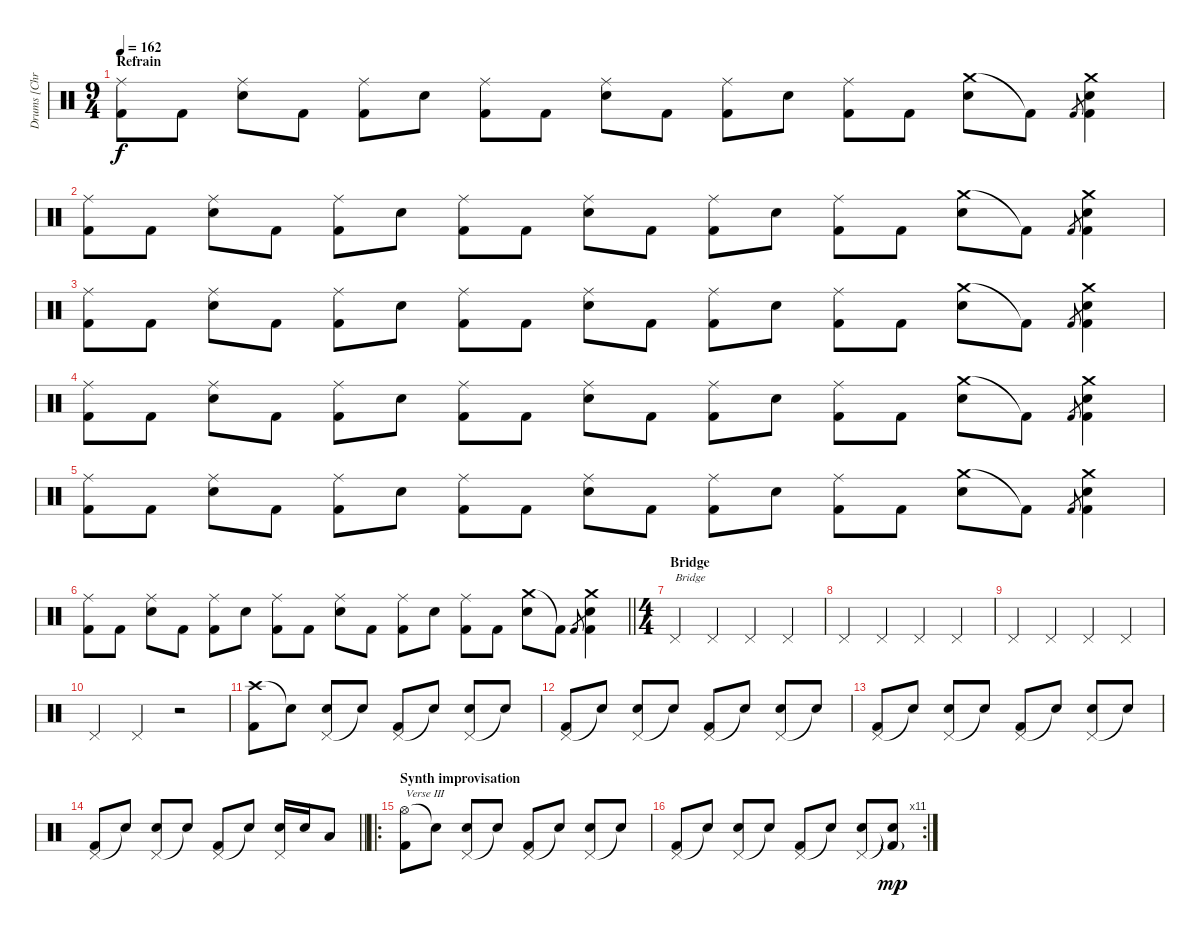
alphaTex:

\track ("Drums [Chris Maitland]" "Drums [Chr") {instrument percussion}
\staff {score}
\articulation defaults
\ts (9 4)
\section ("" "Refrain")
\tempo 162
\clef neutral
\ks c
("Ride (middle)" "Kick (hit) 2").8{dy f} "Kick (hit) 2".8 ("Ride (middle)" "Electric Snare (hit)").8 "Kick (hit) 2".8 ("Ride (middle)" "Kick (hit) 2").8 "Electric Snare (hit)".8 ("Ride (middle)" "Kick (hit) 2").8 "Kick (hit) 2".8 ("Ride (middle)" "Electric Snare (hit)").8 "Kick (hit) 2".8 ("Ride (middle)" "Kick (hit) 2").8 "Electric Snare (hit)".8 ("Ride (middle)" "Kick (hit) 2").8 "Kick (hit) 2".8 ("Crash medium (hit)" "Electric Snare (hit)").8 "Kick (hit) 2"{t}.8 "Kick (hit) 2".8{gr} ("Crash medium (hit)" "Electric Snare (hit)" "Kick (hit) 2").4 |
("Ride (middle)" "Kick (hit) 2").8 "Kick (hit) 2".8 ("Ride (middle)" "Electric Snare (hit)").8 "Kick (hit) 2".8 ("Ride (middle)" "Kick (hit) 2").8 "Electric Snare (hit)".8 ("Ride (middle)" "Kick (hit) 2").8 "Kick (hit) 2".8 ("Ride (middle)" "Electric Snare (hit)").8 "Kick (hit) 2".8 ("Ride (middle)" "Kick (hit) 2").8 "Electric Snare (hit)".8 ("Ride (middle)" "Kick (hit) 2").8 "Kick (hit) 2".8 ("Crash medium (hit)" "Electric Snare (hit)").8 "Kick (hit) 2"{t}.8 "Kick (hit) 2".8{gr} ("Crash medium (hit)" "Electric Snare (hit)" "Kick (hit) 2").4 |
("Ride (middle)" "Kick (hit) 2").8 "Kick (hit) 2".8 ("Ride (middle)" "Electric Snare (hit)").8 "Kick (hit) 2".8 ("Ride (middle)" "Kick (hit) 2").8 "Electric Snare (hit)".8 ("Ride (middle)" "Kick (hit) 2").8 "Kick (hit) 2".8 ("Ride (middle)" "Electric Snare (hit)").8 "Kick (hit) 2".8 ("Ride (middle)" "Kick (hit) 2").8 "Electric Snare (hit)".8 ("Ride (middle)" "Kick (hit) 2").8 "Kick (hit) 2".8 ("Crash medium (hit)" "Electric Snare (hit)").8 "Kick (hit) 2"{t}.8 "Kick (hit) 2".8{gr} ("Crash medium (hit)" "Electric Snare (hit)" "Kick (hit) 2").4 |
("Ride (middle)" "Kick (hit) 2").8 "Kick (hit) 2".8 ("Ride (middle)" "Electric Snare (hit)").8 "Kick (hit) 2".8 ("Ride (middle)" "Kick (hit) 2").8 "Electric Snare (hit)".8 ("Ride (middle)" "Kick (hit) 2").8 "Kick (hit) 2".8 ("Ride (middle)" "Electric Snare (hit)").8 "Kick (hit) 2".8 ("Ride (middle)" "Kick (hit) 2").8 "Electric Snare (hit)".8 ("Ride (middle)" "Kick (hit) 2").8 "Kick (hit) 2".8 ("Crash medium (hit)" "Electric Snare (hit)").8 "Kick (hit) 2"{t}.8 "Kick (hit) 2".8{gr} ("Crash medium (hit)" "Electric Snare (hit)" "Kick (hit) 2").4 |
("Ride (middle)" "Kick (hit) 2").8 "Kick (hit) 2".8 ("Ride (middle)" "Electric Snare (hit)").8 "Kick (hit) 2".8 ("Ride (middle)" "Kick (hit) 2").8 "Electric Snare (hit)".8 ("Ride (middle)" "Kick (hit) 2").8 "Kick (hit) 2".8 ("Ride (middle)" "Electric Snare (hit)").8 "Kick (hit) 2".8 ("Ride (middle)" "Kick (hit) 2").8 "Electric Snare (hit)".8 ("Ride (middle)" "Kick (hit) 2").8 "Kick (hit) 2".8 ("Crash medium (hit)" "Electric Snare (hit)").8 "Kick (hit) 2"{t}.8 "Kick (hit) 2".8{gr} ("Crash medium (hit)" "Electric Snare (hit)" "Kick (hit) 2").4 |
\barLineRight lightlight
("Ride (middle)" "Kick (hit) 2").8 "Kick (hit) 2".8 ("Ride (middle)" "Electric Snare (hit)").8 "Kick (hit) 2".8 ("Ride (middle)" "Kick (hit) 2").8 "Electric Snare (hit)".8 ("Ride (middle)" "Kick (hit) 2").8 "Kick (hit) 2".8 ("Ride (middle)" "Electric Snare (hit)").8 "Kick (hit) 2".8 ("Ride (middle)" "Kick (hit) 2").8 "Electric Snare (hit)".8 ("Ride (middle)" "Kick (hit) 2").8 "Kick (hit) 2".8 ("Crash medium (hit)" "Electric Snare (hit)").8 "Kick (hit) 2"{t}.8 "Kick (hit) 2".8{gr} ("Crash medium (hit)" "Electric Snare (hit)" "Kick (hit) 2").4 |
\ts (4 4)
\section ("" "Bridge")
"Pedal Hi-Hat (hit)".4{txt "Bridge "} "Pedal Hi-Hat (hit)".4 "Pedal Hi-Hat (hit)".4 "Pedal Hi-Hat (hit)".4 |
"Pedal Hi-Hat (hit)".4 "Pedal Hi-Hat (hit)".4 "Pedal Hi-Hat (hit)".4 "Pedal Hi-Hat (hit)".4 |
"Pedal Hi-Hat (hit)".4 "Pedal Hi-Hat (hit)".4 "Pedal Hi-Hat (hit)".4 "Pedal Hi-Hat (hit)".4 |
"Pedal Hi-Hat (hit)".4 "Pedal Hi-Hat (hit)".4 r.2 |
("Crash high (hit)" "Kick (hit) 2").8 "Snare (hit)"{t}.8 ("Pedal Hi-Hat (hit)" "Electric Snare (hit)").8 "Snare (hit)"{t}.8 ("Pedal Hi-Hat (hit)" "Kick (hit) 2").8 "Snare (hit)"{t}.8 ("Pedal Hi-Hat (hit)" "Electric Snare (hit)").8 "Snare (hit)"{t}.8 |
("Pedal Hi-Hat (hit)" "Kick (hit) 2").8 "Snare (hit)"{t}.8 ("Pedal Hi-Hat (hit)" "Electric Snare (hit)").8 "Snare (hit)"{t}.8 ("Pedal Hi-Hat (hit)" "Kick (hit) 2").8 "Snare (hit)"{t}.8 ("Pedal Hi-Hat (hit)" "Electric Snare (hit)").8 "Snare (hit)"{t}.8 |
("Pedal Hi-Hat (hit)" "Kick (hit) 2").8 "Snare (hit)"{t}.8 ("Pedal Hi-Hat (hit)" "Electric Snare (hit)").8 "Snare (hit)"{t}.8 ("Pedal Hi-Hat (hit)" "Kick (hit) 2").8 "Snare (hit)"{t}.8 ("Pedal Hi-Hat (hit)" "Electric Snare (hit)").8 "Snare (hit)"{t}.8 |
\barLineRight lightlight
("Pedal Hi-Hat (hit)" "Kick (hit) 2").8 "Snare (hit)"{t}.8 ("Pedal Hi-Hat (hit)" "Electric Snare (hit)").8 "Snare (hit)"{t}.8 ("Pedal Hi-Hat (hit)" "Kick (hit) 2").8 "Snare (hit)"{t}.8 ("Pedal Hi-Hat (hit)" "Electric Snare (hit)").16 "Electric Snare (hit)".16 "Low Tom (hit)".8 |
\ro
\section ("" "Synth improvisation")
("Hi-Hat (open)" "Kick (hit) 2").8{txt "Verse III"} "Snare (hit)"{t}.8 ("Pedal Hi-Hat (hit)" "Electric Snare (hit)").8 "Snare (hit)"{t}.8 ("Pedal Hi-Hat (hit)" "Kick (hit) 2").8 "Snare (hit)"{t}.8 ("Pedal Hi-Hat (hit)" "Electric Snare (hit)").8 "Snare (hit)"{t}.8 |
\rc 11
("Pedal Hi-Hat (hit)" "Kick (hit) 2").8 "Snare (hit)"{t}.8 ("Pedal Hi-Hat (hit)" "Electric Snare (hit)").8 "Snare (hit)"{t}.8 ("Pedal Hi-Hat (hit)" "Kick (hit) 2").8 "Snare (hit)"{t}.8 ("Pedal Hi-Hat (hit)" "Electric Snare (hit)").8 ("Snare (hit)"{t} "Kick (hit) 2"{g}).8{dy mp}
